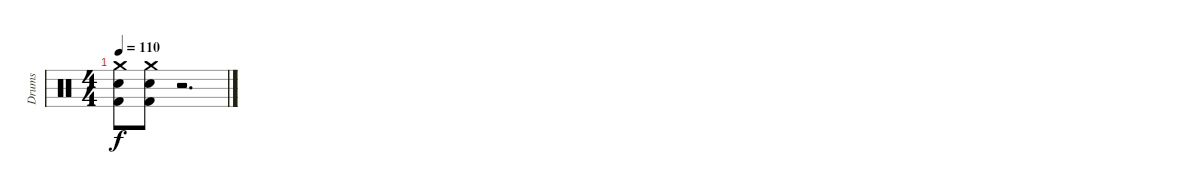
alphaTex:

\track ("Drums" "Drums") {instrument percussion}
\staff {score}
\articulation defaults
\ts (4 4)
\tempo 110
\clef neutral
\ks c
("Crash medium (hit)" "Electric Snare (hit)" "Kick (hit) 2").8{dy f} ("Crash medium (hit)" "Electric Snare (hit)" "Kick (hit) 2").8 r.2{d}
